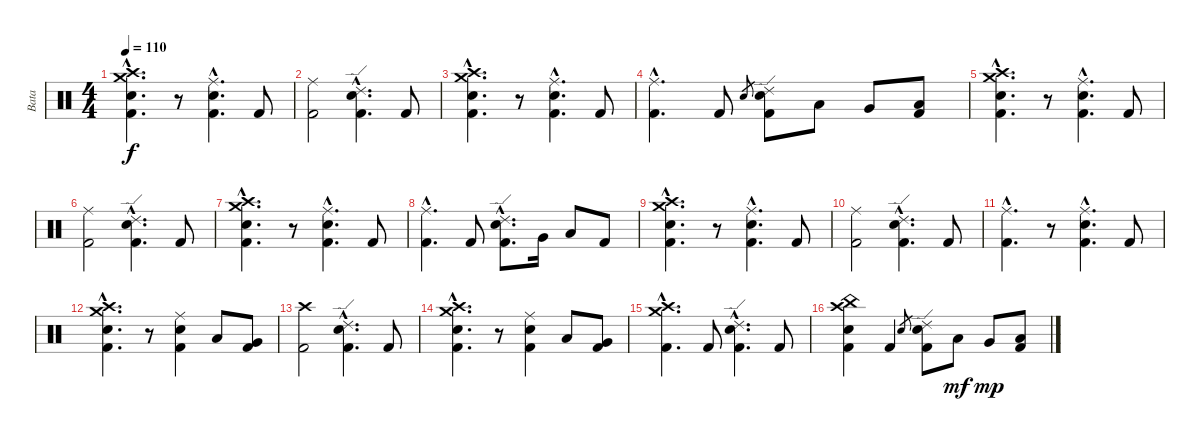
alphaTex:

\track ("Bata" "Bata") {instrument percussion}
\staff {score}
\articulation defaults
\ts (4 4)
\tempo 110
\clef neutral
\ks c
("Crash high (hit)"{hac} "Crash medium (hit)"{hac} "Electric Snare (hit)"{hac} "Kick (hit) 2"{hac}).4{d dy f} r.8 ("Ride (middle)"{hac} "Electric Snare (hit)"{hac} "Kick (hit) 2"{hac}).4{d} "Kick (hit) 2".8 |
("Ride (middle)" "Kick (hit) 2").2 ("Ride (edge) 2"{hac} "Electric Snare (hit)"{hac} "Kick (hit) 2"{hac}).4{d} "Kick (hit) 2".8 |
("Crash high (hit)"{hac} "Crash medium (hit)"{hac} "Electric Snare (hit)"{hac} "Kick (hit) 2"{hac}).4{d} r.8 ("Ride (middle)"{hac} "Electric Snare (hit)"{hac} "Kick (hit) 2"{hac}).4{d} "Kick (hit) 2".8 |
("Ride (middle)"{hac} "Kick (hit) 2"{hac}).4{d} "Kick (hit) 2".8 "Electric Snare (hit)".8{gr} ("Ride (edge) 2" "Electric Snare (hit)" "Kick (hit) 2").8 "Low Tom (hit)".8 "Very Low Tom (hit)".8 ("Low Floor Tom (hit)" "Kick (hit) 2").8 |
("Crash high (hit)"{hac} "Crash medium (hit)"{hac} "Electric Snare (hit)"{hac} "Kick (hit) 2"{hac}).4{d} r.8 ("Ride (middle)"{hac} "Electric Snare (hit)"{hac} "Kick (hit) 2"{hac}).4{d} "Kick (hit) 2".8 |
("Ride (middle)" "Kick (hit) 2").2 ("Ride (edge) 2"{hac} "Electric Snare (hit)"{hac} "Kick (hit) 2"{hac}).4{d} "Kick (hit) 2".8 |
("Crash high (hit)"{hac} "Crash medium (hit)"{hac} "Electric Snare (hit)"{hac} "Kick (hit) 2"{hac}).4{d} r.8 ("Ride (middle)"{hac} "Electric Snare (hit)"{hac} "Kick (hit) 2"{hac}).4{d} "Kick (hit) 2".8 |
("Ride (middle)"{hac} "Kick (hit) 2"{hac}).4{d} "Kick (hit) 2".8 ("Ride (edge) 2"{hac} "Electric Snare (hit)"{hac} "Kick (hit) 2"{hac}).8{d} "Very Low Tom (hit)".16 "Low Floor Tom (hit)".8 "Kick (hit) 2".8 |
("Crash high (hit)"{hac} "Crash medium (hit)"{hac} "Electric Snare (hit)"{hac} "Kick (hit) 2"{hac}).4{d} r.8 ("Ride (middle)"{hac} "Electric Snare (hit)"{hac} "Kick (hit) 2"{hac}).4{d} "Kick (hit) 2".8 |
("Ride (middle)" "Kick (hit) 2").2 ("Ride (edge) 2"{hac} "Electric Snare (hit)"{hac} "Kick (hit) 2"{hac}).4{d} "Kick (hit) 2".8 |
("Ride (middle)"{hac} "Kick (hit) 2"{hac}).4{d} r.8 ("Ride (middle)"{hac} "Electric Snare (hit)"{hac} "Kick (hit) 2"{hac}).4{d} "Kick (hit) 2".8 |
("Crash high (hit)"{hac} "Crash medium (hit)"{hac} "Electric Snare (hit)"{hac} "Kick (hit) 2"{hac}).4{d} r.8 ("Ride (middle)" "Electric Snare (hit)" "Kick (hit) 2").4 "Low Tom (hit)".8 ("Very Low Tom (hit)" "Kick (hit) 2").8 |
("Crash high (hit)" "Kick (hit) 2").2 ("Ride (edge) 2"{hac} "Electric Snare (hit)"{hac} "Kick (hit) 2"{hac}).4{d} "Kick (hit) 2".8 |
("Crash high (hit)"{hac} "Crash medium (hit)"{hac} "Electric Snare (hit)"{hac} "Kick (hit) 2"{hac}).4{d} r.8 ("Ride (middle)" "Electric Snare (hit)" "Kick (hit) 2").4 "Low Tom (hit)".8 ("Very Low Tom (hit)" "Kick (hit) 2").8 |
("Crash high (hit)"{hac} "Crash medium (hit)"{hac} "Kick (hit) 2"{hac}).4{d} "Kick (hit) 2".8 ("Ride (edge) 2"{hac} "Electric Snare (hit)"{hac} "Kick (hit) 2"{hac}).4{d} "Kick (hit) 2".8 |
("Crash high (hit)" "China (hit)" "Snare (hit) 2" "Kick (hit) 2").4 "Kick (hit) 2".4 "Electric Snare (hit)".8{gr} ("Ride (edge) 2" "Electric Snare (hit)" "Kick (hit) 2").8 "Low Tom (hit)".8{dy mf} "Very Low Tom (hit)".8{dy mp} ("Low Floor Tom (hit)" "Kick (hit) 2").8
